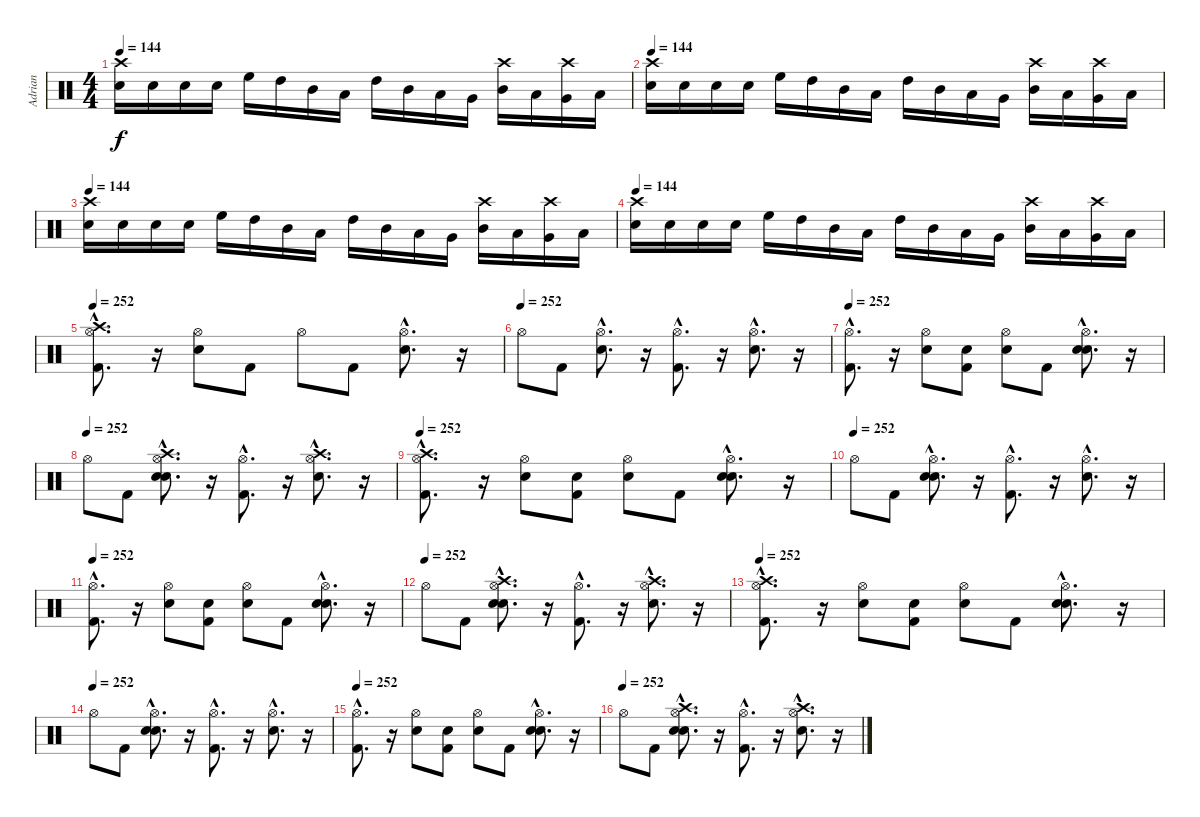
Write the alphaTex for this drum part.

\track ("Adrian" "Adrian") {instrument percussion}
\staff {score}
\articulation defaults
\ts (4 4)
\tempo 144
\clef neutral
\ks c
("Snare (hit) 2" "Crash high (hit)").16{dy f} "Snare (hit) 2".16 "Snare (hit) 2".16 "Snare (hit) 2".16 "High Floor Tom (hit)".16 "High Tom (hit)".16 "Mid Tom (hit)".16 "Low Tom (hit)".16 "High Tom (hit)".16 "Mid Tom (hit)".16 "Low Tom (hit)".16 "Very Low Tom (hit)".16 ("Mid Tom (hit)" "Crash high (hit)").16 "Low Tom (hit)".16 ("Very Low Tom (hit)" "Crash high (hit)").16 "Low Floor Tom (hit)".16 |
\tempo 144
("Snare (hit) 2" "Crash high (hit)").16 "Snare (hit) 2".16 "Snare (hit) 2".16 "Snare (hit) 2".16 "High Floor Tom (hit)".16 "High Tom (hit)".16 "Mid Tom (hit)".16 "Low Tom (hit)".16 "High Tom (hit)".16 "Mid Tom (hit)".16 "Low Tom (hit)".16 "Very Low Tom (hit)".16 ("Mid Tom (hit)" "Crash high (hit)").16 "Low Tom (hit)".16 ("Very Low Tom (hit)" "Crash high (hit)").16 "Low Floor Tom (hit)".16 |
\tempo 144
("Snare (hit) 2" "Crash high (hit)").16 "Snare (hit) 2".16 "Snare (hit) 2".16 "Snare (hit) 2".16 "High Floor Tom (hit)".16 "High Tom (hit)".16 "Mid Tom (hit)".16 "Low Tom (hit)".16 "High Tom (hit)".16 "Mid Tom (hit)".16 "Low Tom (hit)".16 "Very Low Tom (hit)".16 ("Mid Tom (hit)" "Crash high (hit)").16 "Low Tom (hit)".16 ("Very Low Tom (hit)" "Crash high (hit)").16 "Low Floor Tom (hit)".16 |
\tempo 144
("Snare (hit) 2" "Crash high (hit)").16 "Snare (hit) 2".16 "Snare (hit) 2".16 "Snare (hit) 2".16 "High Floor Tom (hit)".16 "High Tom (hit)".16 "Mid Tom (hit)".16 "Low Tom (hit)".16 "High Tom (hit)".16 "Mid Tom (hit)".16 "Low Tom (hit)".16 "Very Low Tom (hit)".16 ("Mid Tom (hit)" "Crash high (hit)").16 "Low Tom (hit)".16 ("Very Low Tom (hit)" "Crash high (hit)").16 "Low Floor Tom (hit)".16 |
\tempo 252
("Kick (hit) 2"{hac} "Hi-Hat (open)"{hac} "Crash high (hit)"{hac}).8{d} r.16 ("Snare (hit) 2" "Hi-Hat (open)").8 "Kick (hit) 2".8 "Hi-Hat (open)".8 "Kick (hit) 2".8 ("Snare (hit) 2"{hac} "Hi-Hat (open)"{hac}).8{d} r.16 |
\tempo (252)
"Hi-Hat (open)".8 "Kick (hit) 2".8 ("Snare (hit) 2"{hac} "Hi-Hat (open)"{hac}).8{d} r.16 ("Kick (hit) 2"{hac} "Hi-Hat (open)"{hac}).8{d} r.16 ("Snare (hit) 2"{hac} "Hi-Hat (open)"{hac}).8{d} r.16 |
\tempo 252
("Kick (hit) 2"{hac} "Hi-Hat (open)"{hac}).8{d} r.16 ("Snare (hit) 2" "Hi-Hat (open)").8 ("Snare (hit)" "Kick (hit) 2").8 ("Snare (hit)" "Hi-Hat (open)").8 "Kick (hit) 2".8 ("Snare (hit)"{hac} "Snare (hit) 2"{hac} "Hi-Hat (open)"{hac}).8{d} r.16 |
\tempo (252)
"Hi-Hat (open)".8 "Kick (hit) 2".8 ("Snare (hit)"{hac} "Snare (hit) 2"{hac} "Hi-Hat (open)"{hac} "Crash high (hit)"{hac}).8{d} r.16 ("Kick (hit) 2"{hac} "Hi-Hat (open)"{hac}).8{d} r.16 ("Snare (hit) 2"{hac} "Hi-Hat (open)"{hac} "Crash high (hit)"{hac}).8{d} r.16 |
\tempo 252
("Kick (hit) 2"{hac} "Hi-Hat (open)"{hac} "Crash high (hit)"{hac}).8{d} r.16 ("Snare (hit) 2" "Hi-Hat (open)").8 ("Snare (hit)" "Kick (hit) 2").8 ("Snare (hit)" "Hi-Hat (open)").8 "Kick (hit) 2".8 ("Snare (hit)"{hac} "Snare (hit) 2"{hac} "Hi-Hat (open)"{hac}).8{d} r.16 |
\tempo (252)
"Hi-Hat (open)".8 "Kick (hit) 2".8 ("Snare (hit)"{hac} "Snare (hit) 2"{hac} "Hi-Hat (open)"{hac}).8{d} r.16 ("Kick (hit) 2"{hac} "Hi-Hat (open)"{hac}).8{d} r.16 ("Snare (hit) 2"{hac} "Hi-Hat (open)"{hac}).8{d} r.16 |
\tempo 252
("Kick (hit) 2"{hac} "Hi-Hat (open)"{hac}).8{d} r.16 ("Snare (hit) 2" "Hi-Hat (open)").8 ("Snare (hit)" "Kick (hit) 2").8 ("Snare (hit)" "Hi-Hat (open)").8 "Kick (hit) 2".8 ("Snare (hit)"{hac} "Snare (hit) 2"{hac} "Hi-Hat (open)"{hac}).8{d} r.16 |
\tempo (252)
"Hi-Hat (open)".8 "Kick (hit) 2".8 ("Snare (hit)"{hac} "Snare (hit) 2"{hac} "Hi-Hat (open)"{hac} "Crash high (hit)"{hac}).8{d} r.16 ("Kick (hit) 2"{hac} "Hi-Hat (open)"{hac}).8{d} r.16 ("Snare (hit) 2"{hac} "Hi-Hat (open)"{hac} "Crash high (hit)"{hac}).8{d} r.16 |
\tempo 252
("Kick (hit) 2"{hac} "Hi-Hat (open)"{hac} "Crash high (hit)"{hac}).8{d} r.16 ("Snare (hit) 2" "Hi-Hat (open)").8 ("Snare (hit)" "Kick (hit) 2").8 ("Snare (hit)" "Hi-Hat (open)").8 "Kick (hit) 2".8 ("Snare (hit)"{hac} "Snare (hit) 2"{hac} "Hi-Hat (open)"{hac}).8{d} r.16 |
\tempo (252)
"Hi-Hat (open)".8 "Kick (hit) 2".8 ("Snare (hit)"{hac} "Snare (hit) 2"{hac} "Hi-Hat (open)"{hac}).8{d} r.16 ("Kick (hit) 2"{hac} "Hi-Hat (open)"{hac}).8{d} r.16 ("Snare (hit) 2"{hac} "Hi-Hat (open)"{hac}).8{d} r.16 |
\tempo 252
("Kick (hit) 2"{hac} "Hi-Hat (open)"{hac}).8{d} r.16 ("Snare (hit) 2" "Hi-Hat (open)").8 ("Snare (hit)" "Kick (hit) 2").8 ("Snare (hit)" "Hi-Hat (open)").8 "Kick (hit) 2".8 ("Snare (hit)"{hac} "Snare (hit) 2"{hac} "Hi-Hat (open)"{hac}).8{d} r.16 |
\tempo (252)
"Hi-Hat (open)".8 "Kick (hit) 2".8 ("Snare (hit)"{hac} "Snare (hit) 2"{hac} "Hi-Hat (open)"{hac} "Crash high (hit)"{hac}).8{d} r.16 ("Kick (hit) 2"{hac} "Hi-Hat (open)"{hac}).8{d} r.16 ("Snare (hit) 2"{hac} "Hi-Hat (open)"{hac} "Crash high (hit)"{hac}).8{d} r.16
